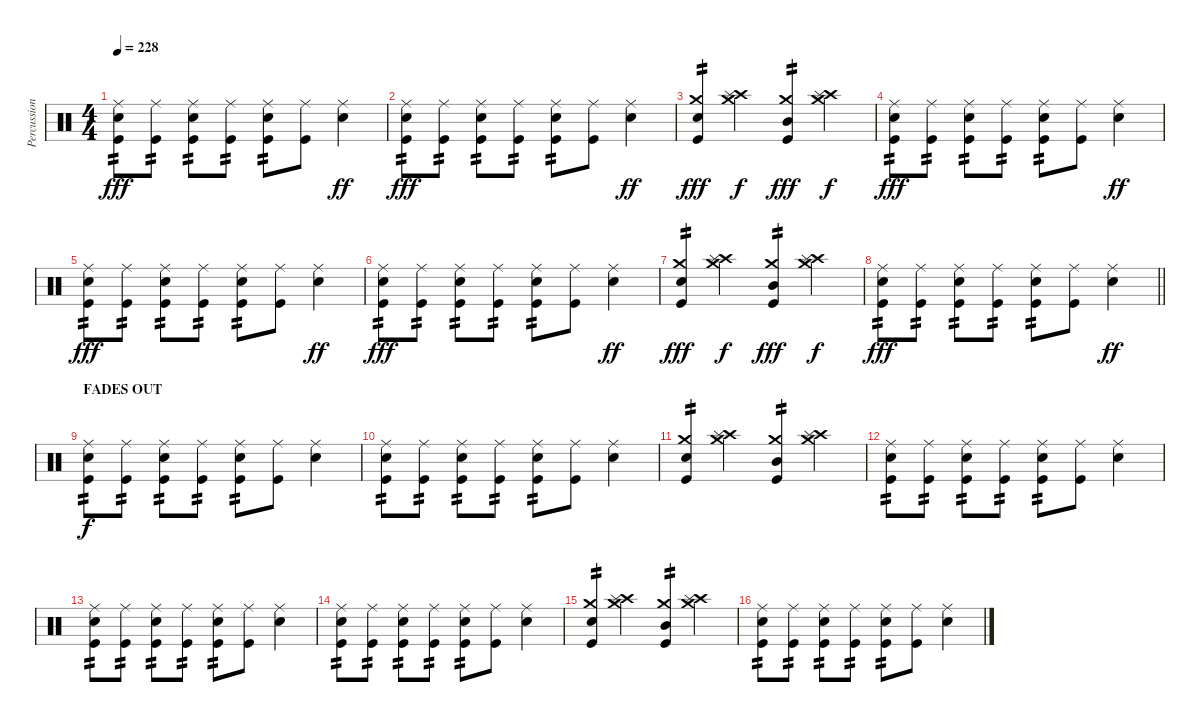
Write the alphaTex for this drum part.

\track ("Percussion" "Percussion") {instrument percussion}
\staff {score}
\articulation defaults
\ts (4 4)
\tempo 228
\clef neutral
\ks c
("Ride (middle)" "Snare (hit) 2" "Kick (hit)").8{tp 2 dy fff} ("Ride (middle)" "Kick (hit)").8{tp 2} ("Ride (middle)" "Snare (hit) 2" "Kick (hit)").8{tp 2} ("Ride (middle)" "Kick (hit)").8{tp 2} ("Ride (middle)" "Snare (hit) 2" "Kick (hit)").8{tp 2} ("Ride (middle)" "Kick (hit)").8 ("Ride (middle)" "Snare (hit) 2").4{dy ff} |
("Ride (middle)" "Snare (hit) 2" "Kick (hit)").8{tp 2 dy fff} ("Ride (middle)" "Kick (hit)").8{tp 2} ("Ride (middle)" "Snare (hit) 2" "Kick (hit)").8{tp 2} ("Ride (middle)" "Kick (hit)").8{tp 2} ("Ride (middle)" "Snare (hit) 2" "Kick (hit)").8{tp 2} ("Ride (middle)" "Kick (hit)").8 ("Ride (middle)" "Snare (hit) 2").4{dy ff} |
("Crash medium (hit)" "Electric Snare (hit)" "Kick (hit)").4{tp 2 dy fff} ("Crash high (hit)" "Crash medium (hit)" "Splash (hit)").4{dy f} ("Crash medium (hit)" "Mid Tom (hit)" "Kick (hit)").4{tp 2 dy fff} ("Crash high (hit)" "Crash medium (hit)" "Splash (hit)").4{dy f} |
("Ride (middle)" "Snare (hit) 2" "Kick (hit)").8{tp 2 dy fff} ("Ride (middle)" "Kick (hit)").8{tp 2} ("Ride (middle)" "Snare (hit) 2" "Kick (hit)").8{tp 2} ("Ride (middle)" "Kick (hit)").8{tp 2} ("Ride (middle)" "Snare (hit) 2" "Kick (hit)").8{tp 2} ("Ride (middle)" "Kick (hit)").8 ("Ride (middle)" "Snare (hit) 2").4{dy ff} |
("Ride (middle)" "Snare (hit) 2" "Kick (hit)").8{tp 2 dy fff} ("Ride (middle)" "Kick (hit)").8{tp 2} ("Ride (middle)" "Snare (hit) 2" "Kick (hit)").8{tp 2} ("Ride (middle)" "Kick (hit)").8{tp 2} ("Ride (middle)" "Snare (hit) 2" "Kick (hit)").8{tp 2} ("Ride (middle)" "Kick (hit)").8 ("Ride (middle)" "Snare (hit) 2").4{dy ff} |
("Ride (middle)" "Snare (hit) 2" "Kick (hit)").8{tp 2 dy fff} ("Ride (middle)" "Kick (hit)").8{tp 2} ("Ride (middle)" "Snare (hit) 2" "Kick (hit)").8{tp 2} ("Ride (middle)" "Kick (hit)").8{tp 2} ("Ride (middle)" "Snare (hit) 2" "Kick (hit)").8{tp 2} ("Ride (middle)" "Kick (hit)").8 ("Ride (middle)" "Snare (hit) 2").4{dy ff} |
("Crash medium (hit)" "Electric Snare (hit)" "Kick (hit)").4{tp 2 dy fff} ("Crash high (hit)" "Crash medium (hit)" "Splash (hit)").4{dy f} ("Crash medium (hit)" "Mid Tom (hit)" "Kick (hit)").4{tp 2 dy fff} ("Crash high (hit)" "Crash medium (hit)" "Splash (hit)").4{dy f} |
\barLineRight lightlight
("Ride (middle)" "Snare (hit) 2" "Kick (hit)").8{tp 2 dy fff} ("Ride (middle)" "Kick (hit)").8{tp 2} ("Ride (middle)" "Snare (hit) 2" "Kick (hit)").8{tp 2} ("Ride (middle)" "Kick (hit)").8{tp 2} ("Ride (middle)" "Snare (hit) 2" "Kick (hit)").8{tp 2} ("Ride (middle)" "Kick (hit)").8 ("Ride (middle)" "Snare (hit) 2").4{dy ff} |
\section ("" "FADES OUT")
("Ride (middle)" "Snare (hit) 2" "Kick (hit)").8{tp 2 dy f} ("Ride (middle)" "Kick (hit)").8{tp 2} ("Ride (middle)" "Snare (hit) 2" "Kick (hit)").8{tp 2} ("Ride (middle)" "Kick (hit)").8{tp 2} ("Ride (middle)" "Snare (hit) 2" "Kick (hit)").8{tp 2} ("Ride (middle)" "Kick (hit)").8 ("Ride (middle)" "Snare (hit) 2").4 |
("Ride (middle)" "Snare (hit) 2" "Kick (hit)").8{tp 2} ("Ride (middle)" "Kick (hit)").8{tp 2} ("Ride (middle)" "Snare (hit) 2" "Kick (hit)").8{tp 2} ("Ride (middle)" "Kick (hit)").8{tp 2} ("Ride (middle)" "Snare (hit) 2" "Kick (hit)").8{tp 2} ("Ride (middle)" "Kick (hit)").8 ("Ride (middle)" "Snare (hit) 2").4 |
("Crash medium (hit)" "Electric Snare (hit)" "Kick (hit)").4{tp 2} ("Crash high (hit)" "Crash medium (hit)" "Splash (hit)").4 ("Crash medium (hit)" "Mid Tom (hit)" "Kick (hit)").4{tp 2} ("Crash high (hit)" "Crash medium (hit)" "Splash (hit)").4 |
("Ride (middle)" "Snare (hit) 2" "Kick (hit)").8{tp 2} ("Ride (middle)" "Kick (hit)").8{tp 2} ("Ride (middle)" "Snare (hit) 2" "Kick (hit)").8{tp 2} ("Ride (middle)" "Kick (hit)").8{tp 2} ("Ride (middle)" "Snare (hit) 2" "Kick (hit)").8{tp 2} ("Ride (middle)" "Kick (hit)").8 ("Ride (middle)" "Snare (hit) 2").4 |
("Ride (middle)" "Snare (hit) 2" "Kick (hit)").8{tp 2} ("Ride (middle)" "Kick (hit)").8{tp 2} ("Ride (middle)" "Snare (hit) 2" "Kick (hit)").8{tp 2} ("Ride (middle)" "Kick (hit)").8{tp 2} ("Ride (middle)" "Snare (hit) 2" "Kick (hit)").8{tp 2} ("Ride (middle)" "Kick (hit)").8 ("Ride (middle)" "Snare (hit) 2").4 |
("Ride (middle)" "Snare (hit) 2" "Kick (hit)").8{tp 2} ("Ride (middle)" "Kick (hit)").8{tp 2} ("Ride (middle)" "Snare (hit) 2" "Kick (hit)").8{tp 2} ("Ride (middle)" "Kick (hit)").8{tp 2} ("Ride (middle)" "Snare (hit) 2" "Kick (hit)").8{tp 2} ("Ride (middle)" "Kick (hit)").8 ("Ride (middle)" "Snare (hit) 2").4 |
("Crash medium (hit)" "Electric Snare (hit)" "Kick (hit)").4{tp 2} ("Crash high (hit)" "Crash medium (hit)" "Splash (hit)").4 ("Crash medium (hit)" "Mid Tom (hit)" "Kick (hit)").4{tp 2} ("Crash high (hit)" "Crash medium (hit)" "Splash (hit)").4 |
("Ride (middle)" "Snare (hit) 2" "Kick (hit)").8{tp 2} ("Ride (middle)" "Kick (hit)").8{tp 2} ("Ride (middle)" "Snare (hit) 2" "Kick (hit)").8{tp 2} ("Ride (middle)" "Kick (hit)").8{tp 2} ("Ride (middle)" "Snare (hit) 2" "Kick (hit)").8{tp 2} ("Ride (middle)" "Kick (hit)").8 ("Ride (middle)" "Snare (hit) 2").4
